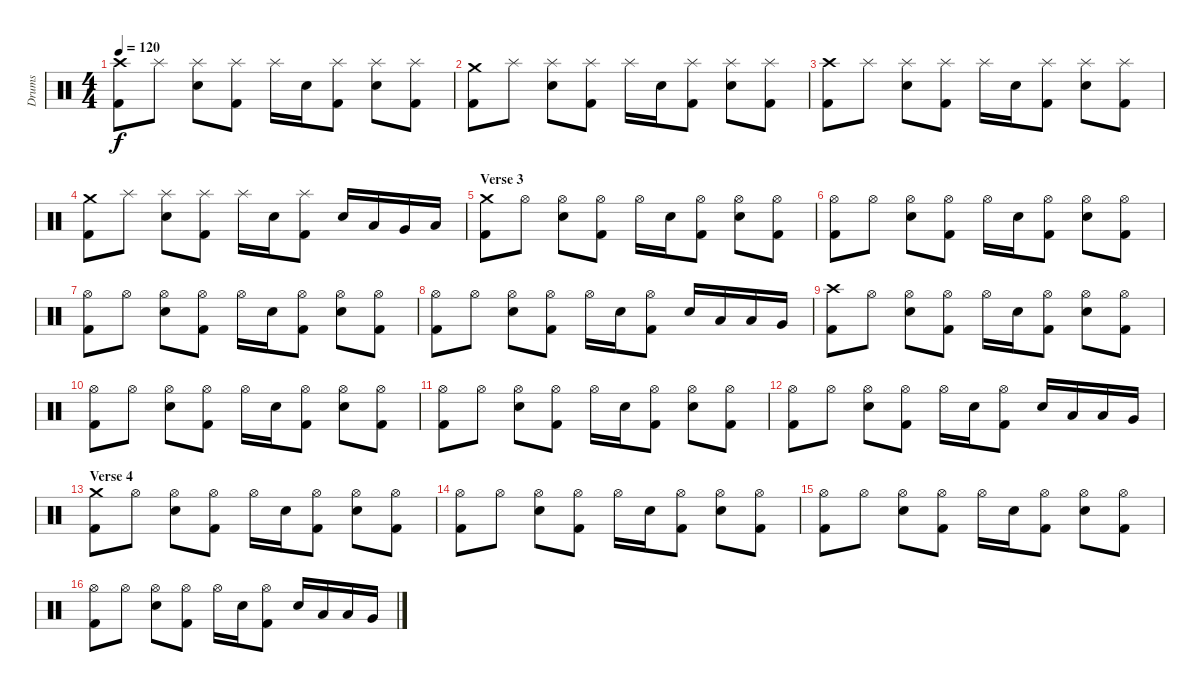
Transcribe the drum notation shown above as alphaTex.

\track ("Drums" "Drums") {instrument percussion}
\staff {score}
\articulation defaults
\ts (4 4)
\tempo 120
\clef neutral
\ks c
("Kick (hit) 2" "Crash high (hit)").8{dy f} "Splash (hit)".8 ("Electric Snare (hit)" "Splash (hit)").8 ("Kick (hit) 2" "Splash (hit)").8 "Splash (hit)".16 "Electric Snare (hit)".16 ("Kick (hit) 2" "Splash (hit)").8 ("Electric Snare (hit)" "Splash (hit)").8 ("Kick (hit) 2" "Splash (hit)").8 |
("Kick (hit) 2" "Crash medium (hit)").8 "Splash (hit)".8 ("Electric Snare (hit)" "Splash (hit)").8 ("Kick (hit) 2" "Splash (hit)").8 "Splash (hit)".16 "Electric Snare (hit)".16 ("Kick (hit) 2" "Splash (hit)").8 ("Electric Snare (hit)" "Splash (hit)").8 ("Kick (hit) 2" "Splash (hit)").8 |
("Kick (hit) 2" "Crash high (hit)").8 "Splash (hit)".8 ("Electric Snare (hit)" "Splash (hit)").8 ("Kick (hit) 2" "Splash (hit)").8 "Splash (hit)".16 "Electric Snare (hit)".16 ("Kick (hit) 2" "Splash (hit)").8 ("Electric Snare (hit)" "Splash (hit)").8 ("Kick (hit) 2" "Splash (hit)").8 |
("Kick (hit) 2" "Crash medium (hit)").8 "Splash (hit)".8 ("Electric Snare (hit)" "Splash (hit)").8 ("Kick (hit) 2" "Splash (hit)").8 "Splash (hit)".16 "Electric Snare (hit)".16 ("Kick (hit) 2" "Splash (hit)").8 "Electric Snare (hit)".16 "Low Tom (hit)".16 "Very Low Tom (hit)".16 "Low Floor Tom (hit)".16 |
\section ("" "Verse 3")
("Kick (hit) 2" "Crash medium (hit)").8 "Hi-Hat (open)".8 ("Electric Snare (hit)" "Hi-Hat (open)").8 ("Kick (hit) 2" "Hi-Hat (open)").8 "Hi-Hat (open)".16 "Electric Snare (hit)".16 ("Kick (hit) 2" "Hi-Hat (open)").8 ("Electric Snare (hit)" "Hi-Hat (open)").8 ("Kick (hit) 2" "Hi-Hat (open)").8 |
("Kick (hit) 2" "Hi-Hat (open)").8 "Hi-Hat (open)".8 ("Electric Snare (hit)" "Hi-Hat (open)").8 ("Kick (hit) 2" "Hi-Hat (open)").8 "Hi-Hat (open)".16 "Electric Snare (hit)".16 ("Kick (hit) 2" "Hi-Hat (open)").8 ("Electric Snare (hit)" "Hi-Hat (open)").8 ("Kick (hit) 2" "Hi-Hat (open)").8 |
("Kick (hit) 2" "Hi-Hat (open)").8 "Hi-Hat (open)".8 ("Electric Snare (hit)" "Hi-Hat (open)").8 ("Kick (hit) 2" "Hi-Hat (open)").8 "Hi-Hat (open)".16 "Electric Snare (hit)".16 ("Kick (hit) 2" "Hi-Hat (open)").8 ("Electric Snare (hit)" "Hi-Hat (open)").8 ("Kick (hit) 2" "Hi-Hat (open)").8 |
("Kick (hit) 2" "Hi-Hat (open)").8 "Hi-Hat (open)".8 ("Electric Snare (hit)" "Hi-Hat (open)").8 ("Kick (hit) 2" "Hi-Hat (open)").8 "Hi-Hat (open)".16 "Electric Snare (hit)".16 ("Kick (hit) 2" "Hi-Hat (open)").8 "Electric Snare (hit)".16 "Low Tom (hit)".16 "Low Tom (hit)".16 "Very Low Tom (hit)".16 |
("Kick (hit) 2" "Crash high (hit)").8 "Hi-Hat (open)".8 ("Electric Snare (hit)" "Hi-Hat (open)").8 ("Kick (hit) 2" "Hi-Hat (open)").8 "Hi-Hat (open)".16 "Electric Snare (hit)".16 ("Kick (hit) 2" "Hi-Hat (open)").8 ("Electric Snare (hit)" "Hi-Hat (open)").8 ("Kick (hit) 2" "Hi-Hat (open)").8 |
("Kick (hit) 2" "Hi-Hat (open)").8 "Hi-Hat (open)".8 ("Electric Snare (hit)" "Hi-Hat (open)").8 ("Kick (hit) 2" "Hi-Hat (open)").8 "Hi-Hat (open)".16 "Electric Snare (hit)".16 ("Kick (hit) 2" "Hi-Hat (open)").8 ("Electric Snare (hit)" "Hi-Hat (open)").8 ("Kick (hit) 2" "Hi-Hat (open)").8 |
("Kick (hit) 2" "Hi-Hat (open)").8 "Hi-Hat (open)".8 ("Electric Snare (hit)" "Hi-Hat (open)").8 ("Kick (hit) 2" "Hi-Hat (open)").8 "Hi-Hat (open)".16 "Electric Snare (hit)".16 ("Kick (hit) 2" "Hi-Hat (open)").8 ("Electric Snare (hit)" "Hi-Hat (open)").8 ("Kick (hit) 2" "Hi-Hat (open)").8 |
("Kick (hit) 2" "Hi-Hat (open)").8 "Hi-Hat (open)".8 ("Electric Snare (hit)" "Hi-Hat (open)").8 ("Kick (hit) 2" "Hi-Hat (open)").8 "Hi-Hat (open)".16 "Electric Snare (hit)".16 ("Kick (hit) 2" "Hi-Hat (open)").8 "Electric Snare (hit)".16 "Low Tom (hit)".16 "Low Tom (hit)".16 "Very Low Tom (hit)".16 |
\section ("" "Verse 4")
("Kick (hit) 2" "Crash medium (hit)").8 "Hi-Hat (open)".8 ("Electric Snare (hit)" "Hi-Hat (open)").8 ("Kick (hit) 2" "Hi-Hat (open)").8 "Hi-Hat (open)".16 "Electric Snare (hit)".16 ("Kick (hit) 2" "Hi-Hat (open)").8 ("Electric Snare (hit)" "Hi-Hat (open)").8 ("Kick (hit) 2" "Hi-Hat (open)").8 |
("Kick (hit) 2" "Hi-Hat (open)").8 "Hi-Hat (open)".8 ("Electric Snare (hit)" "Hi-Hat (open)").8 ("Kick (hit) 2" "Hi-Hat (open)").8 "Hi-Hat (open)".16 "Electric Snare (hit)".16 ("Kick (hit) 2" "Hi-Hat (open)").8 ("Electric Snare (hit)" "Hi-Hat (open)").8 ("Kick (hit) 2" "Hi-Hat (open)").8 |
("Kick (hit) 2" "Hi-Hat (open)").8 "Hi-Hat (open)".8 ("Electric Snare (hit)" "Hi-Hat (open)").8 ("Kick (hit) 2" "Hi-Hat (open)").8 "Hi-Hat (open)".16 "Electric Snare (hit)".16 ("Kick (hit) 2" "Hi-Hat (open)").8 ("Electric Snare (hit)" "Hi-Hat (open)").8 ("Kick (hit) 2" "Hi-Hat (open)").8 |
("Kick (hit) 2" "Hi-Hat (open)").8 "Hi-Hat (open)".8 ("Electric Snare (hit)" "Hi-Hat (open)").8 ("Kick (hit) 2" "Hi-Hat (open)").8 "Hi-Hat (open)".16 "Electric Snare (hit)".16 ("Kick (hit) 2" "Hi-Hat (open)").8 "Electric Snare (hit)".16 "Low Tom (hit)".16 "Low Tom (hit)".16 "Very Low Tom (hit)".16
